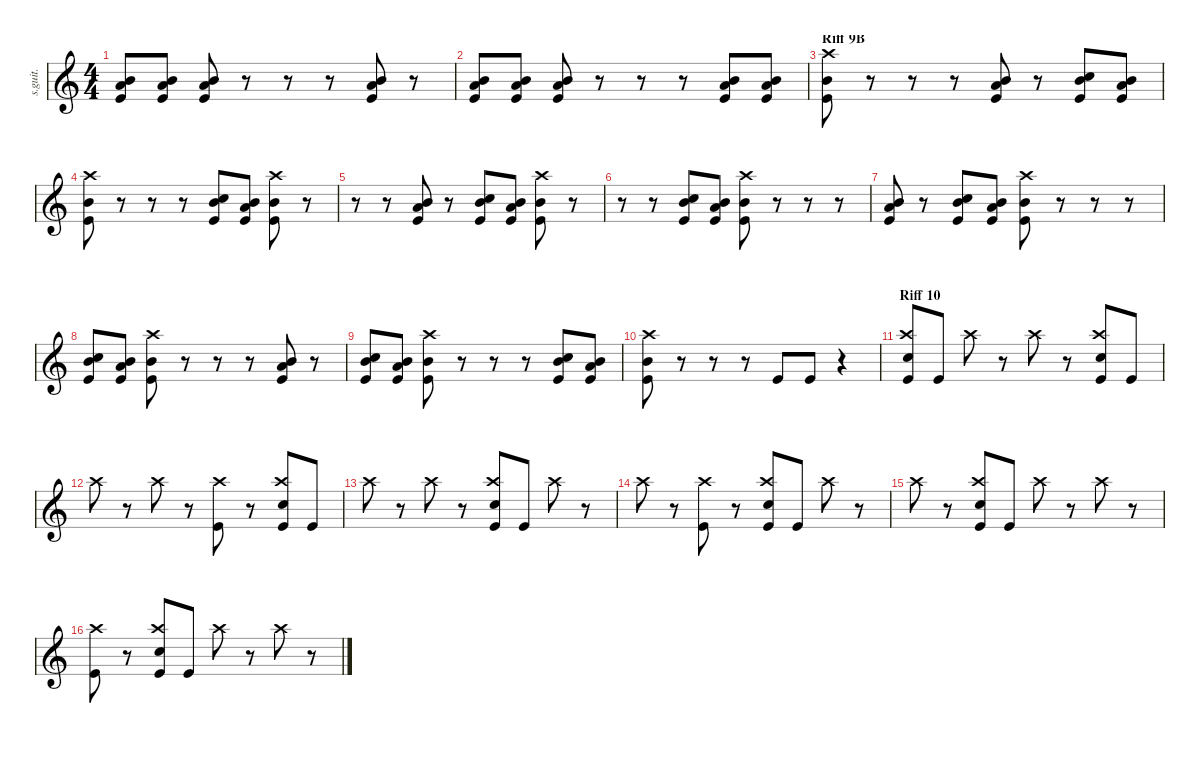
\defaultSystemsLayout 4
\hideDynamics
\bracketExtendMode nobrackets
\track ("Drumkit" "s.guit.") {instrument percussion}
\staff {score}
\articulation defaults
\ts (4 4)
\tempo (133 hide)
\clef g2
\ks c
("Mid Tom (hit)" "Low Tom (hit)" "Kick (hit)").8{lyrics (0 "") lyrics (1 "") lyrics (2 "") lyrics (3 "") lyrics (4 "") dy f} ("Mid Tom (hit)" "Low Tom (hit)" "Kick (hit)").8{lyrics (0 "") lyrics (1 "") lyrics (2 "") lyrics (3 "") lyrics (4 "")} ("Mid Tom (hit)" "Low Tom (hit)" "Kick (hit)").8{lyrics (0 "") lyrics (1 "") lyrics (2 "") lyrics (3 "") lyrics (4 "")} r.8 r.8 r.8 ("Mid Tom (hit)" "Low Tom (hit)" "Kick (hit)").8{lyrics (0 "") lyrics (1 "") lyrics (2 "") lyrics (3 "") lyrics (4 "")} r.8 |
("Mid Tom (hit)" "Low Tom (hit)" "Kick (hit)").8{lyrics (0 "") lyrics (1 "") lyrics (2 "") lyrics (3 "") lyrics (4 "")} ("Mid Tom (hit)" "Low Tom (hit)" "Kick (hit)").8{lyrics (0 "") lyrics (1 "") lyrics (2 "") lyrics (3 "") lyrics (4 "")} ("Mid Tom (hit)" "Low Tom (hit)" "Kick (hit)").8{lyrics (0 "") lyrics (1 "") lyrics (2 "") lyrics (3 "") lyrics (4 "")} r.8 r.8 r.8 ("Mid Tom (hit)" "Low Tom (hit)" "Kick (hit)").8{lyrics (0 "") lyrics (1 "") lyrics (2 "") lyrics (3 "") lyrics (4 "")} ("Mid Tom (hit)" "Low Tom (hit)" "Kick (hit)").8{lyrics (0 "") lyrics (1 "") lyrics (2 "") lyrics (3 "") lyrics (4 "")} |
\section ("" "Riff 9B")
("Crash high (hit)" "Mid Tom (hit)" "Kick (hit)").8{lyrics (0 "") lyrics (1 "") lyrics (2 "") lyrics (3 "") lyrics (4 "")} r.8 r.8 r.8 ("Mid Tom (hit)" "Low Tom (hit)" "Kick (hit)").8{lyrics (0 "") lyrics (1 "") lyrics (2 "") lyrics (3 "") lyrics (4 "")} r.8 ("Mid Tom (hit)" "Snare (hit) 2" "Kick (hit)").8{lyrics (0 "") lyrics (1 "") lyrics (2 "") lyrics (3 "") lyrics (4 "")} ("Mid Tom (hit)" "Low Tom (hit)" "Kick (hit)").8{lyrics (0 "") lyrics (1 "") lyrics (2 "") lyrics (3 "") lyrics (4 "")} |
("Crash high (hit)" "Mid Tom (hit)" "Kick (hit)").8{lyrics (0 "") lyrics (1 "") lyrics (2 "") lyrics (3 "") lyrics (4 "")} r.8 r.8 r.8 ("Mid Tom (hit)" "Snare (hit) 2" "Kick (hit)").8{lyrics (0 "") lyrics (1 "") lyrics (2 "") lyrics (3 "") lyrics (4 "")} ("Mid Tom (hit)" "Low Tom (hit)" "Kick (hit)").8{lyrics (0 "") lyrics (1 "") lyrics (2 "") lyrics (3 "") lyrics (4 "")} ("Crash high (hit)" "Mid Tom (hit)" "Kick (hit)").8{lyrics (0 "") lyrics (1 "") lyrics (2 "") lyrics (3 "") lyrics (4 "")} r.8 |
r.8 r.8 ("Mid Tom (hit)" "Low Tom (hit)" "Kick (hit)").8{lyrics (0 "") lyrics (1 "") lyrics (2 "") lyrics (3 "") lyrics (4 "")} r.8 ("Mid Tom (hit)" "Snare (hit) 2" "Kick (hit)").8{lyrics (0 "") lyrics (1 "") lyrics (2 "") lyrics (3 "") lyrics (4 "")} ("Mid Tom (hit)" "Low Tom (hit)" "Kick (hit)").8{lyrics (0 "") lyrics (1 "") lyrics (2 "") lyrics (3 "") lyrics (4 "")} ("Crash high (hit)" "Mid Tom (hit)" "Kick (hit)").8{lyrics (0 "") lyrics (1 "") lyrics (2 "") lyrics (3 "") lyrics (4 "")} r.8 |
r.8 r.8 ("Mid Tom (hit)" "Snare (hit) 2" "Kick (hit)").8{lyrics (0 "") lyrics (1 "") lyrics (2 "") lyrics (3 "") lyrics (4 "")} ("Mid Tom (hit)" "Low Tom (hit)" "Kick (hit)").8{lyrics (0 "") lyrics (1 "") lyrics (2 "") lyrics (3 "") lyrics (4 "")} ("Crash high (hit)" "Mid Tom (hit)" "Kick (hit)").8{lyrics (0 "") lyrics (1 "") lyrics (2 "") lyrics (3 "") lyrics (4 "")} r.8 r.8 r.8 |
("Mid Tom (hit)" "Low Tom (hit)" "Kick (hit)").8{lyrics (0 "") lyrics (1 "") lyrics (2 "") lyrics (3 "") lyrics (4 "")} r.8 ("Mid Tom (hit)" "Snare (hit) 2" "Kick (hit)").8{lyrics (0 "") lyrics (1 "") lyrics (2 "") lyrics (3 "") lyrics (4 "")} ("Mid Tom (hit)" "Low Tom (hit)" "Kick (hit)").8{lyrics (0 "") lyrics (1 "") lyrics (2 "") lyrics (3 "") lyrics (4 "")} ("Crash high (hit)" "Mid Tom (hit)" "Kick (hit)").8{lyrics (0 "") lyrics (1 "") lyrics (2 "") lyrics (3 "") lyrics (4 "")} r.8 r.8 r.8 |
("Mid Tom (hit)" "Snare (hit) 2" "Kick (hit)").8{lyrics (0 "") lyrics (1 "") lyrics (2 "") lyrics (3 "") lyrics (4 "")} ("Mid Tom (hit)" "Low Tom (hit)" "Kick (hit)").8{lyrics (0 "") lyrics (1 "") lyrics (2 "") lyrics (3 "") lyrics (4 "")} ("Crash high (hit)" "Mid Tom (hit)" "Kick (hit)").8{lyrics (0 "") lyrics (1 "") lyrics (2 "") lyrics (3 "") lyrics (4 "")} r.8 r.8 r.8 ("Mid Tom (hit)" "Low Tom (hit)" "Kick (hit)").8{lyrics (0 "") lyrics (1 "") lyrics (2 "") lyrics (3 "") lyrics (4 "")} r.8 |
("Mid Tom (hit)" "Snare (hit) 2" "Kick (hit)").8{lyrics (0 "") lyrics (1 "") lyrics (2 "") lyrics (3 "") lyrics (4 "")} ("Mid Tom (hit)" "Low Tom (hit)" "Kick (hit)").8{lyrics (0 "") lyrics (1 "") lyrics (2 "") lyrics (3 "") lyrics (4 "")} ("Crash high (hit)" "Mid Tom (hit)" "Kick (hit)").8{lyrics (0 "") lyrics (1 "") lyrics (2 "") lyrics (3 "") lyrics (4 "")} r.8 r.8 r.8 ("Mid Tom (hit)" "Snare (hit) 2" "Kick (hit)").8{lyrics (0 "") lyrics (1 "") lyrics (2 "") lyrics (3 "") lyrics (4 "")} ("Mid Tom (hit)" "Low Tom (hit)" "Kick (hit)").8{lyrics (0 "") lyrics (1 "") lyrics (2 "") lyrics (3 "") lyrics (4 "")} |
("Crash high (hit)" "Mid Tom (hit)" "Kick (hit)").8{lyrics (0 "") lyrics (1 "") lyrics (2 "") lyrics (3 "") lyrics (4 "")} r.8 r.8 r.8 "Kick (hit)".8{lyrics (0 "") lyrics (1 "") lyrics (2 "") lyrics (3 "") lyrics (4 "")} "Kick (hit)".8{lyrics (0 "") lyrics (1 "") lyrics (2 "") lyrics (3 "") lyrics (4 "")} r.4 |
\section ("" "Riff 10")
("Crash high (hit)" "Snare (hit) 2" "Kick (hit)").8{lyrics (0 "") lyrics (1 "") lyrics (2 "") lyrics (3 "") lyrics (4 "")} "Kick (hit)".8{lyrics (0 "") lyrics (1 "") lyrics (2 "") lyrics (3 "") lyrics (4 "")} "Crash high (hit)".8{lyrics (0 "") lyrics (1 "") lyrics (2 "") lyrics (3 "") lyrics (4 "")} r.8 "Crash high (hit)".8{lyrics (0 "") lyrics (1 "") lyrics (2 "") lyrics (3 "") lyrics (4 "")} r.8 ("Crash high (hit)" "Snare (hit) 2" "Kick (hit)").8{lyrics (0 "") lyrics (1 "") lyrics (2 "") lyrics (3 "") lyrics (4 "")} "Kick (hit)".8{lyrics (0 "") lyrics (1 "") lyrics (2 "") lyrics (3 "") lyrics (4 "")} |
"Crash high (hit)".8{lyrics (0 "") lyrics (1 "") lyrics (2 "") lyrics (3 "") lyrics (4 "")} r.8 "Crash high (hit)".8{lyrics (0 "") lyrics (1 "") lyrics (2 "") lyrics (3 "") lyrics (4 "")} r.8 ("Crash high (hit)" "Kick (hit)").8{lyrics (0 "") lyrics (1 "") lyrics (2 "") lyrics (3 "") lyrics (4 "")} r.8 ("Crash high (hit)" "Snare (hit) 2" "Kick (hit)").8{lyrics (0 "") lyrics (1 "") lyrics (2 "") lyrics (3 "") lyrics (4 "")} "Kick (hit)".8{lyrics (0 "") lyrics (1 "") lyrics (2 "") lyrics (3 "") lyrics (4 "")} |
"Crash high (hit)".8{lyrics (0 "") lyrics (1 "") lyrics (2 "") lyrics (3 "") lyrics (4 "")} r.8 "Crash high (hit)".8{lyrics (0 "") lyrics (1 "") lyrics (2 "") lyrics (3 "") lyrics (4 "")} r.8 ("Crash high (hit)" "Snare (hit) 2" "Kick (hit)").8{lyrics (0 "") lyrics (1 "") lyrics (2 "") lyrics (3 "") lyrics (4 "")} "Kick (hit)".8{lyrics (0 "") lyrics (1 "") lyrics (2 "") lyrics (3 "") lyrics (4 "")} "Crash high (hit)".8{lyrics (0 "") lyrics (1 "") lyrics (2 "") lyrics (3 "") lyrics (4 "")} r.8 |
"Crash high (hit)".8{lyrics (0 "") lyrics (1 "") lyrics (2 "") lyrics (3 "") lyrics (4 "")} r.8 ("Crash high (hit)" "Kick (hit)").8{lyrics (0 "") lyrics (1 "") lyrics (2 "") lyrics (3 "") lyrics (4 "")} r.8 ("Crash high (hit)" "Snare (hit) 2" "Kick (hit)").8{lyrics (0 "") lyrics (1 "") lyrics (2 "") lyrics (3 "") lyrics (4 "")} "Kick (hit)".8{lyrics (0 "") lyrics (1 "") lyrics (2 "") lyrics (3 "") lyrics (4 "")} "Crash high (hit)".8{lyrics (0 "") lyrics (1 "") lyrics (2 "") lyrics (3 "") lyrics (4 "")} r.8 |
"Crash high (hit)".8{lyrics (0 "") lyrics (1 "") lyrics (2 "") lyrics (3 "") lyrics (4 "")} r.8 ("Crash high (hit)" "Snare (hit) 2" "Kick (hit)").8{lyrics (0 "") lyrics (1 "") lyrics (2 "") lyrics (3 "") lyrics (4 "")} "Kick (hit)".8{lyrics (0 "") lyrics (1 "") lyrics (2 "") lyrics (3 "") lyrics (4 "")} "Crash high (hit)".8{lyrics (0 "") lyrics (1 "") lyrics (2 "") lyrics (3 "") lyrics (4 "")} r.8 "Crash high (hit)".8{lyrics (0 "") lyrics (1 "") lyrics (2 "") lyrics (3 "") lyrics (4 "")} r.8 |
("Crash high (hit)" "Kick (hit)").8{lyrics (0 "") lyrics (1 "") lyrics (2 "") lyrics (3 "") lyrics (4 "")} r.8 ("Crash high (hit)" "Snare (hit) 2" "Kick (hit)").8{lyrics (0 "") lyrics (1 "") lyrics (2 "") lyrics (3 "") lyrics (4 "")} "Kick (hit)".8{lyrics (0 "") lyrics (1 "") lyrics (2 "") lyrics (3 "") lyrics (4 "")} "Crash high (hit)".8{lyrics (0 "") lyrics (1 "") lyrics (2 "") lyrics (3 "") lyrics (4 "")} r.8 "Crash high (hit)".8{lyrics (0 "") lyrics (1 "") lyrics (2 "") lyrics (3 "") lyrics (4 "")} r.8
